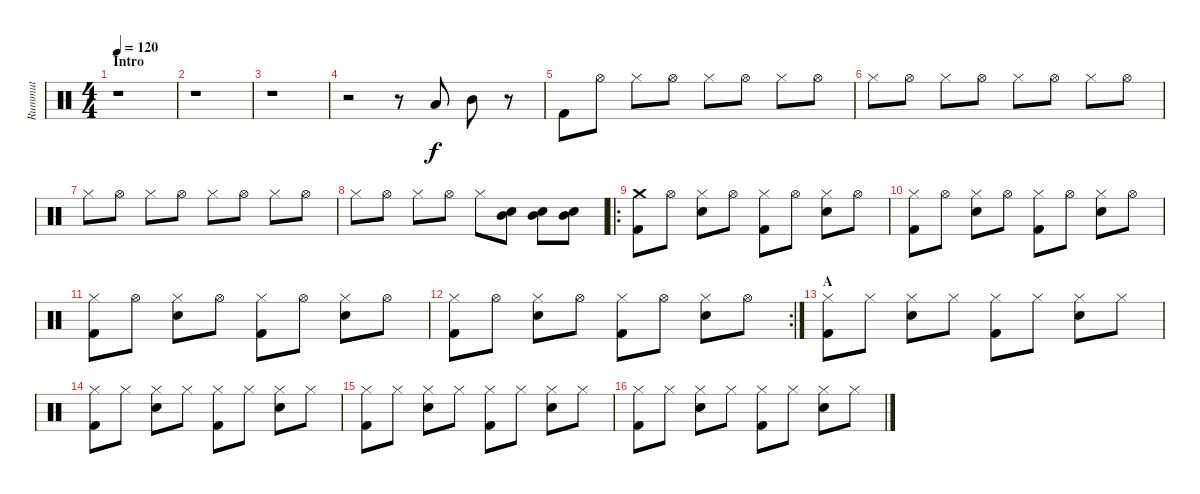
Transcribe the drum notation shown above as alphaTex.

\track ("Rummut" "Rummut") {instrument percussion}
\staff {score}
\articulation defaults
\ts (4 4)
\section ("" "Intro")
\tempo 120
\clef neutral
\ks c
r.1{dy f} |
r.1 |
r.1 |
r.2 r.8 "Low Tom (hit)".8 "Mid Tom (hit)".8 r.8 |
"Kick (hit) 2".8 "Hi-Hat (open)".8 "Hi-Hat (closed)".8 "Hi-Hat (open)".8 "Hi-Hat (closed)".8 "Hi-Hat (open)".8 "Hi-Hat (closed)".8 "Hi-Hat (open)".8 |
"Hi-Hat (closed)".8 "Hi-Hat (open)".8 "Hi-Hat (closed)".8 "Hi-Hat (open)".8 "Hi-Hat (closed)".8 "Hi-Hat (open)".8 "Hi-Hat (closed)".8 "Hi-Hat (open)".8 |
"Hi-Hat (closed)".8 "Hi-Hat (open)".8 "Hi-Hat (closed)".8 "Hi-Hat (open)".8 "Hi-Hat (closed)".8 "Hi-Hat (open)".8 "Hi-Hat (closed)".8 "Hi-Hat (open)".8 |
"Hi-Hat (closed)".8 "Hi-Hat (open)".8 "Hi-Hat (closed)".8 "Hi-Hat (open)".8 "Hi-Hat (closed)".8 ("Mid Tom (hit)" "Electric Snare (hit)").8 ("Mid Tom (hit)" "Electric Snare (hit)").8 ("Mid Tom (hit)" "Electric Snare (hit)").8 |
\ro
("Kick (hit) 2" "Crash medium (hit)").8 "Hi-Hat (open)".8 ("Electric Snare (hit)" "Hi-Hat (closed)").8 "Hi-Hat (open)".8 ("Kick (hit) 2" "Hi-Hat (closed)").8 "Hi-Hat (open)".8 ("Electric Snare (hit)" "Hi-Hat (closed)").8 "Hi-Hat (open)".8 |
("Kick (hit) 2" "Hi-Hat (closed)").8 "Hi-Hat (open)".8 ("Electric Snare (hit)" "Hi-Hat (closed)").8 "Hi-Hat (open)".8 ("Kick (hit) 2" "Hi-Hat (closed)").8 "Hi-Hat (open)".8 ("Electric Snare (hit)" "Hi-Hat (closed)").8 "Hi-Hat (open)".8 |
("Kick (hit) 2" "Hi-Hat (closed)").8 "Hi-Hat (open)".8 ("Electric Snare (hit)" "Hi-Hat (closed)").8 "Hi-Hat (open)".8 ("Kick (hit) 2" "Hi-Hat (closed)").8 "Hi-Hat (open)".8 ("Electric Snare (hit)" "Hi-Hat (closed)").8 "Hi-Hat (open)".8 |
\rc 2
("Kick (hit) 2" "Hi-Hat (closed)").8 "Hi-Hat (open)".8 ("Electric Snare (hit)" "Hi-Hat (closed)").8 "Hi-Hat (open)".8 ("Kick (hit) 2" "Hi-Hat (closed)").8 "Hi-Hat (open)".8 ("Electric Snare (hit)" "Hi-Hat (closed)").8 "Hi-Hat (open)".8 |
\section ("" "A")
("Kick (hit) 2" "Hi-Hat (closed)").8 "Hi-Hat (closed)".8 ("Electric Snare (hit)" "Hi-Hat (closed)").8 "Hi-Hat (closed)".8 ("Kick (hit) 2" "Hi-Hat (closed)").8 "Hi-Hat (closed)".8 ("Electric Snare (hit)" "Hi-Hat (closed)").8 "Hi-Hat (closed)".8 |
("Kick (hit) 2" "Hi-Hat (closed)").8 "Hi-Hat (closed)".8 ("Electric Snare (hit)" "Hi-Hat (closed)").8 "Hi-Hat (closed)".8 ("Kick (hit) 2" "Hi-Hat (closed)").8 "Hi-Hat (closed)".8 ("Electric Snare (hit)" "Hi-Hat (closed)").8 "Hi-Hat (closed)".8 |
("Kick (hit) 2" "Hi-Hat (closed)").8 "Hi-Hat (closed)".8 ("Electric Snare (hit)" "Hi-Hat (closed)").8 "Hi-Hat (closed)".8 ("Kick (hit) 2" "Hi-Hat (closed)").8 "Hi-Hat (closed)".8 ("Electric Snare (hit)" "Hi-Hat (closed)").8 "Hi-Hat (closed)".8 |
("Kick (hit) 2" "Hi-Hat (closed)").8 "Hi-Hat (closed)".8 ("Electric Snare (hit)" "Hi-Hat (closed)").8 "Hi-Hat (closed)".8 ("Kick (hit) 2" "Hi-Hat (closed)").8 "Hi-Hat (closed)".8 ("Electric Snare (hit)" "Hi-Hat (closed)").8 "Hi-Hat (closed)".8
